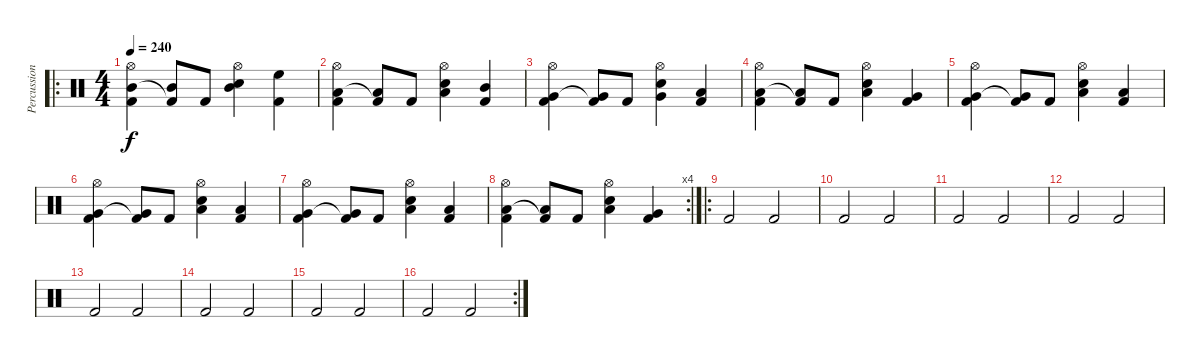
\track ("Percussion" "Percussion") {instrument percussion}
\staff {score}
\articulation defaults
\ro
\ts (4 4)
\tempo 240
\clef neutral
\ks c
("Hi-Hat (open)" "Mid Tom (hit)" "Kick (hit) 2").4{dy f} ("Mid Tom (hit)" "Kick (hit) 2"{t}).8 "Kick (hit) 2".8 ("Hi-Hat (open)" "Mid Tom (hit)" "Snare (hit) 2").4 ("High Floor Tom (hit)" "Kick (hit) 2").4 |
("Hi-Hat (open)" "Low Tom (hit)" "Kick (hit) 2").4 ("Low Tom (hit)" "Kick (hit) 2"{t}).8 "Kick (hit) 2".8 ("Hi-Hat (open)" "Low Tom (hit)" "Snare (hit) 2").4 ("Mid Tom (hit)" "Kick (hit) 2").4 |
("Hi-Hat (open)" "Very Low Tom (hit)" "Kick (hit) 2").4 ("Very Low Tom (hit)" "Kick (hit) 2"{t}).8 "Kick (hit) 2".8 ("Hi-Hat (open)" "Very Low Tom (hit)" "Snare (hit) 2").4 ("Low Tom (hit)" "Kick (hit) 2").4 |
("Hi-Hat (open)" "Low Floor Tom (hit)" "Kick (hit) 2").4 ("Low Floor Tom (hit)" "Kick (hit) 2"{t}).8 "Kick (hit) 2".8 ("Hi-Hat (open)" "Low Floor Tom (hit)" "Snare (hit) 2").4 ("Very Low Tom (hit)" "Kick (hit) 2").4 |
("Hi-Hat (open)" "Very Low Tom (hit)" "Kick (hit) 2").4 ("Very Low Tom (hit)" "Kick (hit) 2"{t}).8 "Kick (hit) 2".8 ("Hi-Hat (open)" "Low Floor Tom (hit)" "Snare (hit) 2").4 ("Low Tom (hit)" "Kick (hit) 2").4 |
("Hi-Hat (open)" "Very Low Tom (hit)" "Kick (hit) 2").4 ("Very Low Tom (hit)" "Kick (hit) 2"{t}).8 "Kick (hit) 2".8 ("Hi-Hat (open)" "Low Floor Tom (hit)" "Snare (hit) 2").4 ("Low Tom (hit)" "Kick (hit) 2").4 |
("Hi-Hat (open)" "Very Low Tom (hit)" "Kick (hit) 2").4 ("Very Low Tom (hit)" "Kick (hit) 2"{t}).8 "Kick (hit) 2".8 ("Hi-Hat (open)" "Low Floor Tom (hit)" "Snare (hit) 2").4 ("Low Tom (hit)" "Kick (hit) 2").4 |
\rc 4
("Hi-Hat (open)" "Low Floor Tom (hit)" "Kick (hit) 2").4 ("Low Floor Tom (hit)" "Kick (hit) 2"{t}).8 "Kick (hit) 2".8 ("Hi-Hat (open)" "Low Floor Tom (hit)" "Snare (hit) 2").4 ("Very Low Tom (hit)" "Kick (hit) 2").4 |
\ro "Kick (hit) 2".2 "Kick (hit) 2".2
|
"Kick (hit) 2".2 "Kick (hit) 2".2 |
"Kick (hit) 2".2 "Kick (hit) 2".2 |
"Kick (hit) 2".2 "Kick (hit) 2".2 |
"Kick (hit) 2".2 "Kick (hit) 2".2 |
"Kick (hit) 2".2 "Kick (hit) 2".2 |
"Kick (hit) 2".2 "Kick (hit) 2".2 |
\rc 2 "Kick (hit) 2".2 "Kick (hit) 2".2
